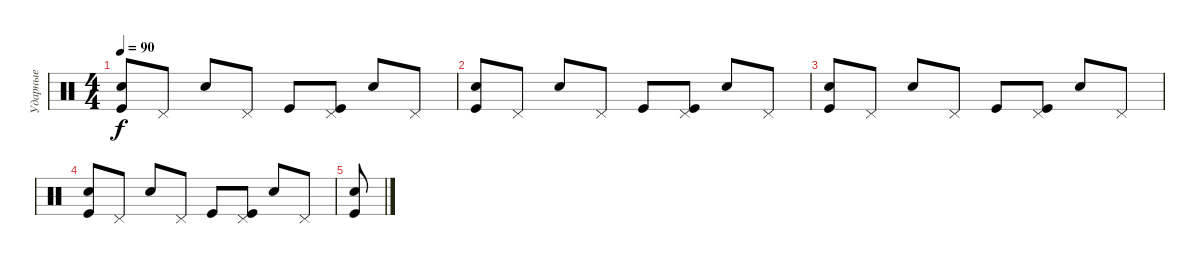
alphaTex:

\track ("Ударные" "Ударные") {instrument percussion}
\staff {score}
\articulation defaults
\ts (4 4)
\tempo 90
\clef neutral
\ks c
("Kick (hit)" "Snare (hit) 2").8{dy f} "Pedal Hi-Hat (hit)".8 "Electric Snare (hit)".8 "Pedal Hi-Hat (hit)".8 "Kick (hit)".8 ("Kick (hit)" "Pedal Hi-Hat (hit)").8 "Electric Snare (hit)".8 "Pedal Hi-Hat (hit)".8 |
("Kick (hit)" "Snare (hit) 2").8 "Pedal Hi-Hat (hit)".8 "Electric Snare (hit)".8 "Pedal Hi-Hat (hit)".8 "Kick (hit)".8 ("Kick (hit)" "Pedal Hi-Hat (hit)").8 "Electric Snare (hit)".8 "Pedal Hi-Hat (hit)".8 |
("Kick (hit)" "Snare (hit) 2").8 "Pedal Hi-Hat (hit)".8 "Electric Snare (hit)".8 "Pedal Hi-Hat (hit)".8 "Kick (hit)".8 ("Kick (hit)" "Pedal Hi-Hat (hit)").8 "Electric Snare (hit)".8 "Pedal Hi-Hat (hit)".8 |
("Kick (hit)" "Snare (hit) 2").8 "Pedal Hi-Hat (hit)".8 "Electric Snare (hit)".8 "Pedal Hi-Hat (hit)".8 "Kick (hit)".8 ("Kick (hit)" "Pedal Hi-Hat (hit)").8 "Electric Snare (hit)".8 "Pedal Hi-Hat (hit)".8 |
("Kick (hit)" "Snare (hit) 2").8
